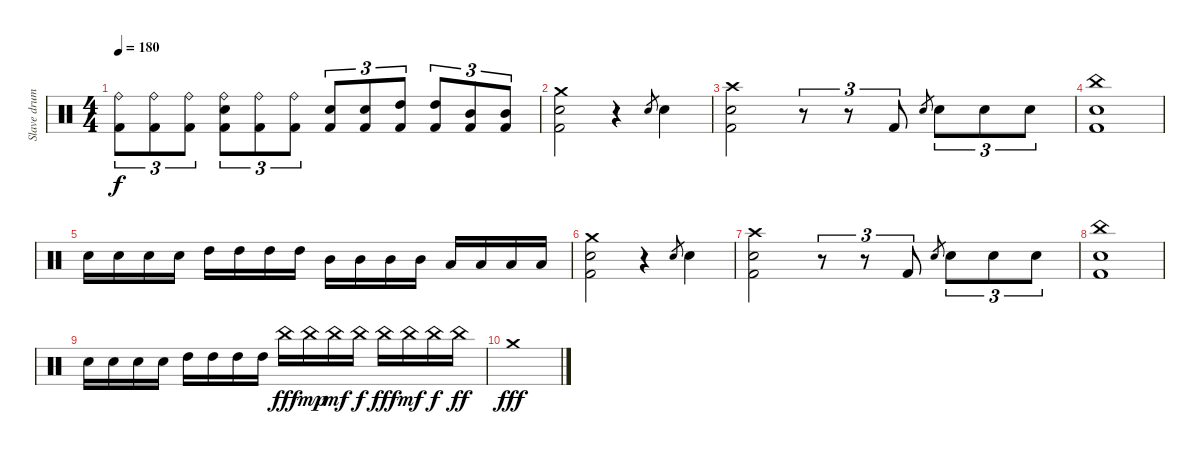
\track ("Slave drum" "Slave drum") {instrument percussion}
\staff {score}
\articulation defaults
\ts (4 4)
\tempo 180
\clef neutral
\ks c
("Ride (bell)" "Kick (hit) 2").8{tu (3 2) dy f} ("Ride (bell)" "Kick (hit) 2").8{tu (3 2)} ("Ride (bell)" "Kick (hit) 2").8{tu (3 2)} ("Ride (bell)" "Electric Snare (hit)" "Kick (hit) 2").8{tu (3 2)} ("Ride (bell)" "Kick (hit) 2").8{tu (3 2)} ("Ride (bell)" "Kick (hit) 2").8{tu (3 2)} ("Electric Snare (hit)" "Kick (hit) 2").8{tu (3 2)} ("Electric Snare (hit)" "Kick (hit) 2").8{tu (3 2)} ("High Tom (hit)" "Kick (hit) 2").8{tu (3 2)} ("High Tom (hit)" "Kick (hit) 2").8{tu (3 2)} ("Mid Tom (hit)" "Kick (hit) 2").8{tu (3 2)} ("Mid Tom (hit)" "Kick (hit) 2").8{tu (3 2)} |
("Crash medium (hit)" "Electric Snare (hit)" "Kick (hit) 2").2 r.4 "Electric Snare (hit)".8{gr} "Electric Snare (hit)".4 |
("Crash high (hit)" "Electric Snare (hit)" "Kick (hit) 2").2 r.8{tu (3 2)} r.8{tu (3 2)} "Kick (hit) 2".8{tu (3 2)} "Electric Snare (hit)".8{gr} "Electric Snare (hit)".8{tu (3 2)} "Electric Snare (hit)".8{tu (3 2)} "Electric Snare (hit)".8{tu (3 2)} |
("China (hit)" "Electric Snare (hit)" "Kick (hit) 2").1 |
"Electric Snare (hit)".16 "Electric Snare (hit)".16 "Electric Snare (hit)".16 "Electric Snare (hit)".16 "High Tom (hit)".16 "High Tom (hit)".16 "High Tom (hit)".16 "High Tom (hit)".16 "Mid Tom (hit)".16 "Mid Tom (hit)".16 "Mid Tom (hit)".16 "Mid Tom (hit)".16 "Low Tom (hit)".16 "Low Tom (hit)".16 "Low Tom (hit)".16 "Low Tom (hit)".16 |
("Crash medium (hit)" "Electric Snare (hit)" "Kick (hit) 2").2 r.4 "Electric Snare (hit)".8{gr} "Electric Snare (hit)".4 |
("Crash high (hit)" "Electric Snare (hit)" "Kick (hit) 2").2 r.8{tu (3 2)} r.8{tu (3 2)} "Kick (hit) 2".8{tu (3 2)} "Electric Snare (hit)".8{gr} "Electric Snare (hit)".8{tu (3 2)} "Electric Snare (hit)".8{tu (3 2)} "Electric Snare (hit)".8{tu (3 2)} |
("China (hit)" "Electric Snare (hit)" "Kick (hit) 2").1 |
"Electric Snare (hit)".16 "Electric Snare (hit)".16 "Electric Snare (hit)".16 "Electric Snare (hit)".16 "High Tom (hit)".16 "High Tom (hit)".16 "High Tom (hit)".16 "High Tom (hit)".16 "China (hit)".16{dy fff} "China (hit)".16{dy mp} "China (hit)".16{dy mf} "China (hit)".16{dy f} "China (hit)".16{dy fff} "China (hit)".16{dy mf} "China (hit)".16{dy f} "China (hit)".16{dy ff} |
"Crash medium (hit)".1{dy fff}
